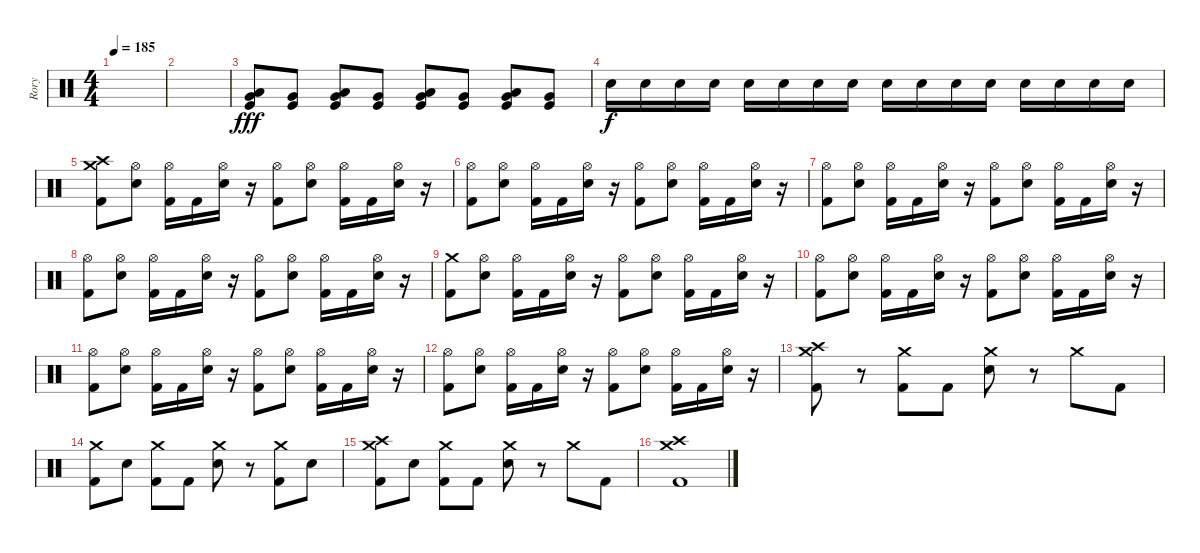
\track ("Rory" "Rory") {instrument percussion}
\staff {score}
\articulation defaults
\ts (4 4)
\tempo 185
\clef neutral
\ks c
|
|
("Low Tom (hit)" "Very Low Tom (hit)" "Kick (hit)").8{dy fff} ("Very Low Tom (hit)" "Kick (hit)").8 ("Low Tom (hit)" "Very Low Tom (hit)" "Kick (hit)").8 ("Very Low Tom (hit)" "Kick (hit)").8 ("Low Tom (hit)" "Very Low Tom (hit)" "Kick (hit)").8 ("Very Low Tom (hit)" "Kick (hit)").8 ("Low Tom (hit)" "Very Low Tom (hit)" "Kick (hit)").8 ("Very Low Tom (hit)" "Kick (hit)").8 |
"Electric Snare (hit)".16{dy f} "Electric Snare (hit)".16 "Electric Snare (hit)".16 "Electric Snare (hit)".16 "Electric Snare (hit)".16 "Electric Snare (hit)".16 "Electric Snare (hit)".16 "Electric Snare (hit)".16 "Electric Snare (hit)".16 "Electric Snare (hit)".16 "Electric Snare (hit)".16 "Electric Snare (hit)".16 "Electric Snare (hit)".16 "Electric Snare (hit)".16 "Electric Snare (hit)".16 "Electric Snare (hit)".16 |
("Crash medium (hit)" "Crash high (hit)" "Kick (hit) 2").8 ("Hi-Hat (open)" "Electric Snare (hit)").8 ("Hi-Hat (open)" "Kick (hit) 2").16 "Kick (hit) 2".16 ("Hi-Hat (open)" "Electric Snare (hit)").16 r.16 ("Hi-Hat (open)" "Kick (hit) 2").8 ("Hi-Hat (open)" "Electric Snare (hit)").8 ("Hi-Hat (open)" "Kick (hit) 2").16 "Kick (hit) 2".16 ("Hi-Hat (open)" "Electric Snare (hit)").16 r.16 |
("Hi-Hat (open)" "Kick (hit) 2").8 ("Hi-Hat (open)" "Electric Snare (hit)").8 ("Hi-Hat (open)" "Kick (hit) 2").16 "Kick (hit) 2".16 ("Hi-Hat (open)" "Electric Snare (hit)").16 r.16 ("Hi-Hat (open)" "Kick (hit) 2").8 ("Hi-Hat (open)" "Electric Snare (hit)").8 ("Hi-Hat (open)" "Kick (hit) 2").16 "Kick (hit) 2".16 ("Hi-Hat (open)" "Electric Snare (hit)").16 r.16 |
("Hi-Hat (open)" "Kick (hit) 2").8 ("Hi-Hat (open)" "Electric Snare (hit)").8 ("Hi-Hat (open)" "Kick (hit) 2").16 "Kick (hit) 2".16 ("Hi-Hat (open)" "Electric Snare (hit)").16 r.16 ("Hi-Hat (open)" "Kick (hit) 2").8 ("Hi-Hat (open)" "Electric Snare (hit)").8 ("Hi-Hat (open)" "Kick (hit) 2").16 "Kick (hit) 2".16 ("Hi-Hat (open)" "Electric Snare (hit)").16 r.16 |
("Hi-Hat (open)" "Kick (hit) 2").8 ("Hi-Hat (open)" "Electric Snare (hit)").8 ("Hi-Hat (open)" "Kick (hit) 2").16 "Kick (hit) 2".16 ("Hi-Hat (open)" "Electric Snare (hit)").16 r.16 ("Hi-Hat (open)" "Kick (hit) 2").8 ("Hi-Hat (open)" "Electric Snare (hit)").8 ("Hi-Hat (open)" "Kick (hit) 2").16 "Kick (hit) 2".16 ("Hi-Hat (open)" "Electric Snare (hit)").16 r.16 |
("Crash medium (hit)" "Kick (hit) 2").8 ("Hi-Hat (open)" "Electric Snare (hit)").8 ("Hi-Hat (open)" "Kick (hit) 2").16 "Kick (hit) 2".16 ("Hi-Hat (open)" "Electric Snare (hit)").16 r.16 ("Hi-Hat (open)" "Kick (hit) 2").8 ("Hi-Hat (open)" "Electric Snare (hit)").8 ("Hi-Hat (open)" "Kick (hit) 2").16 "Kick (hit) 2".16 ("Hi-Hat (open)" "Electric Snare (hit)").16 r.16 |
("Hi-Hat (open)" "Kick (hit) 2").8 ("Hi-Hat (open)" "Electric Snare (hit)").8 ("Hi-Hat (open)" "Kick (hit) 2").16 "Kick (hit) 2".16 ("Hi-Hat (open)" "Electric Snare (hit)").16 r.16 ("Hi-Hat (open)" "Kick (hit) 2").8 ("Hi-Hat (open)" "Electric Snare (hit)").8 ("Hi-Hat (open)" "Kick (hit) 2").16 "Kick (hit) 2".16 ("Hi-Hat (open)" "Electric Snare (hit)").16 r.16 |
("Hi-Hat (open)" "Kick (hit) 2").8 ("Hi-Hat (open)" "Electric Snare (hit)").8 ("Hi-Hat (open)" "Kick (hit) 2").16 "Kick (hit) 2".16 ("Hi-Hat (open)" "Electric Snare (hit)").16 r.16 ("Hi-Hat (open)" "Kick (hit) 2").8 ("Hi-Hat (open)" "Electric Snare (hit)").8 ("Hi-Hat (open)" "Kick (hit) 2").16 "Kick (hit) 2".16 ("Hi-Hat (open)" "Electric Snare (hit)").16 r.16 |
("Hi-Hat (open)" "Kick (hit) 2").8 ("Hi-Hat (open)" "Electric Snare (hit)").8 ("Hi-Hat (open)" "Kick (hit) 2").16 "Kick (hit) 2".16 ("Hi-Hat (open)" "Electric Snare (hit)").16 r.16 ("Hi-Hat (open)" "Kick (hit) 2").8 ("Hi-Hat (open)" "Electric Snare (hit)").8 ("Hi-Hat (open)" "Kick (hit) 2").16 "Kick (hit) 2".16 ("Hi-Hat (open)" "Electric Snare (hit)").16 r.16 |
("Crash high (hit)" "Crash medium (hit)" "Kick (hit) 2").8 r.8 ("Crash medium (hit)" "Kick (hit) 2").8 "Kick (hit) 2".8 ("Crash medium (hit)" "Electric Snare (hit)").8 r.8 "Crash medium (hit)".8 "Kick (hit) 2".8 |
("Crash medium (hit)" "Kick (hit) 2").8 "Electric Snare (hit)".8 ("Crash medium (hit)" "Kick (hit) 2").8 "Kick (hit) 2".8 ("Crash medium (hit)" "Electric Snare (hit)").8 r.8 ("Crash medium (hit)" "Kick (hit) 2").8 "Electric Snare (hit)".8 |
("Crash high (hit)" "Crash medium (hit)" "Kick (hit) 2").8 "Electric Snare (hit)".8 ("Crash medium (hit)" "Kick (hit) 2").8 "Kick (hit) 2".8 ("Crash medium (hit)" "Electric Snare (hit)").8 r.8 "Crash medium (hit)".8 "Kick (hit) 2".8 |
("Crash high (hit)" "Crash medium (hit)" "Kick (hit) 2").1
